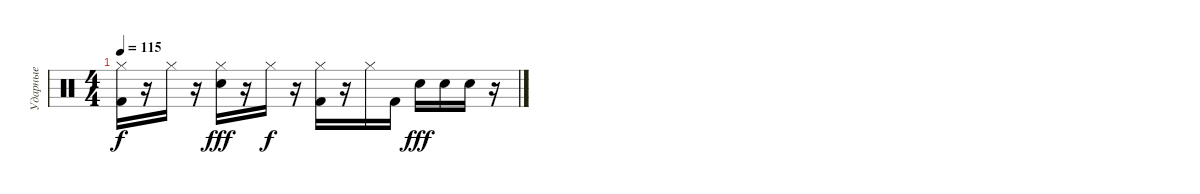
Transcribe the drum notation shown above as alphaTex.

\track ("Ударные" "Ударные") {instrument percussion}
\staff {score}
\articulation defaults
\ts (4 4)
\tempo 115
\clef neutral
\ks c
("Hi-Hat (closed)" "Kick (hit) 2").16{dy f} r.16 "Hi-Hat (closed)".16 r.16 ("Hi-Hat (closed)" "Electric Snare (hit)").16{dy fff} r.16 "Hi-Hat (closed)".16{dy f} r.16 ("Hi-Hat (closed)" "Kick (hit) 2").16 r.16 "Hi-Hat (closed)".16 "Kick (hit) 2".16 "Electric Snare (hit)".16{dy fff} "Electric Snare (hit)".16 "Electric Snare (hit)".16 r.16
